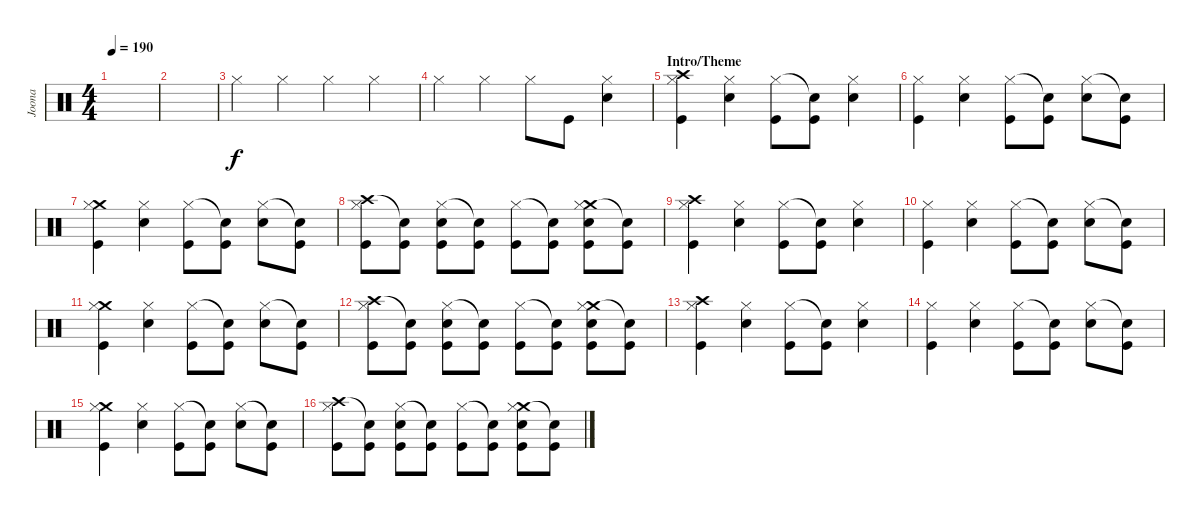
\track ("Joona" "Joona") {instrument percussion}
\staff {score}
\articulation defaults
\ts (4 4)
\tempo 190
\clef neutral
\ks c
|
|
"Hi-Hat (closed)".4 "Hi-Hat (closed)".4 "Hi-Hat (closed)".4 "Hi-Hat (closed)".4 |
"Hi-Hat (closed)".4 "Hi-Hat (closed)".4 "Hi-Hat (closed)".8 "Kick (hit)".8 ("Hi-Hat (closed)" "Snare (hit) 2").4 |
\section ("" "Intro/Theme")
("Crash high (hit)" "Hi-Hat (closed)" "Kick (hit)").4 ("Hi-Hat (closed)" "Snare (hit) 2").4 ("Hi-Hat (closed)" "Kick (hit)").8 ("Snare (hit)"{t} "Kick (hit)").8 ("Hi-Hat (closed)" "Snare (hit) 2").4 |
("Hi-Hat (closed)" "Kick (hit)").4 ("Hi-Hat (closed)" "Snare (hit) 2").4 ("Hi-Hat (closed)" "Kick (hit)").8 ("Snare (hit)"{t} "Kick (hit)").8 ("Hi-Hat (closed)" "Snare (hit) 2").8 ("Snare (hit)"{t} "Kick (hit)").8 |
("Crash medium (hit)" "Hi-Hat (closed)" "Kick (hit)").4 ("Hi-Hat (closed)" "Snare (hit) 2").4 ("Hi-Hat (closed)" "Kick (hit)").8 ("Snare (hit)"{t} "Kick (hit)").8 ("Hi-Hat (closed)" "Snare (hit) 2").8 ("Snare (hit)"{t} "Kick (hit)").8 |
("Crash high (hit)" "Hi-Hat (closed)" "Kick (hit)").8 ("Snare (hit)"{t} "Kick (hit)").8 ("Hi-Hat (closed)" "Snare (hit) 2" "Kick (hit)").8 ("Snare (hit)"{t} "Kick (hit)").8 ("Hi-Hat (closed)" "Kick (hit)").8 ("Snare (hit)"{t} "Kick (hit)").8 ("Crash medium (hit)" "Hi-Hat (closed)" "Snare (hit) 2" "Kick (hit)").8 ("Snare (hit)"{t} "Kick (hit)").8 |
("Crash high (hit)" "Hi-Hat (closed)" "Kick (hit)").4 ("Hi-Hat (closed)" "Snare (hit) 2").4 ("Hi-Hat (closed)" "Kick (hit)").8 ("Snare (hit)"{t} "Kick (hit)").8 ("Hi-Hat (closed)" "Snare (hit) 2").4 |
("Hi-Hat (closed)" "Kick (hit)").4 ("Hi-Hat (closed)" "Snare (hit) 2").4 ("Hi-Hat (closed)" "Kick (hit)").8 ("Snare (hit)"{t} "Kick (hit)").8 ("Hi-Hat (closed)" "Snare (hit) 2").8 ("Snare (hit)"{t} "Kick (hit)").8 |
("Crash medium (hit)" "Hi-Hat (closed)" "Kick (hit)").4 ("Hi-Hat (closed)" "Snare (hit) 2").4 ("Hi-Hat (closed)" "Kick (hit)").8 ("Snare (hit)"{t} "Kick (hit)").8 ("Hi-Hat (closed)" "Snare (hit) 2").8 ("Snare (hit)"{t} "Kick (hit)").8 |
("Crash high (hit)" "Hi-Hat (closed)" "Kick (hit)").8 ("Snare (hit)"{t} "Kick (hit)").8 ("Hi-Hat (closed)" "Snare (hit) 2" "Kick (hit)").8 ("Snare (hit)"{t} "Kick (hit)").8 ("Hi-Hat (closed)" "Kick (hit)").8 ("Snare (hit)"{t} "Kick (hit)").8 ("Crash medium (hit)" "Hi-Hat (closed)" "Snare (hit) 2" "Kick (hit)").8 ("Snare (hit)"{t} "Kick (hit)").8 |
("Crash high (hit)" "Hi-Hat (closed)" "Kick (hit)").4 ("Hi-Hat (closed)" "Snare (hit) 2").4 ("Hi-Hat (closed)" "Kick (hit)").8 ("Snare (hit)"{t} "Kick (hit)").8 ("Hi-Hat (closed)" "Snare (hit) 2").4 |
("Hi-Hat (closed)" "Kick (hit)").4 ("Hi-Hat (closed)" "Snare (hit) 2").4 ("Hi-Hat (closed)" "Kick (hit)").8 ("Snare (hit)"{t} "Kick (hit)").8 ("Hi-Hat (closed)" "Snare (hit) 2").8 ("Snare (hit)"{t} "Kick (hit)").8 |
("Crash medium (hit)" "Hi-Hat (closed)" "Kick (hit)").4 ("Hi-Hat (closed)" "Snare (hit) 2").4 ("Hi-Hat (closed)" "Kick (hit)").8 ("Snare (hit)"{t} "Kick (hit)").8 ("Hi-Hat (closed)" "Snare (hit) 2").8 ("Snare (hit)"{t} "Kick (hit)").8 |
("Crash high (hit)" "Hi-Hat (closed)" "Kick (hit)").8 ("Snare (hit)"{t} "Kick (hit)").8 ("Hi-Hat (closed)" "Snare (hit) 2" "Kick (hit)").8 ("Snare (hit)"{t} "Kick (hit)").8 ("Hi-Hat (closed)" "Kick (hit)").8 ("Snare (hit)"{t} "Kick (hit)").8 ("Crash medium (hit)" "Hi-Hat (closed)" "Snare (hit) 2" "Kick (hit)").8 ("Snare (hit)"{t} "Kick (hit)").8
